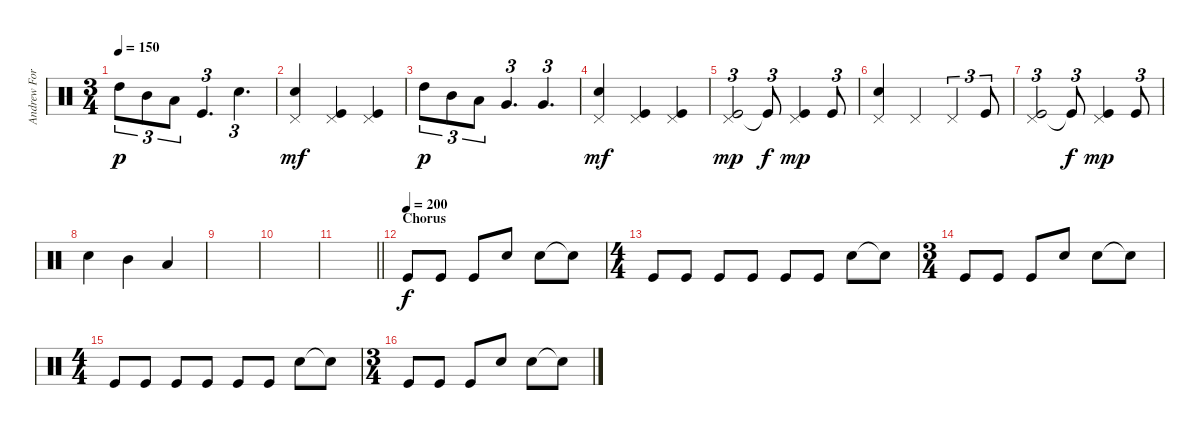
\track ("Andrew Forsman" "Andrew For") {instrument percussion}
\staff {score}
\articulation defaults
\ts (3 4)
\tempo 150
\clef neutral
\ks c "High Tom (hit)".8{tu (3 2) dy p} "Mid Tom (hit)".8{tu (3 2)} "Low Tom (hit)".8{tu (3 2)} "Kick (hit)".4{d tu (3 2)} "Electric Snare (hit)".4{d tu (3 2)}
|
("Pedal Hi-Hat (hit)" "Electric Snare (hit)").4{dy mf} ("Pedal Hi-Hat (hit)" "Kick (hit)").4 ("Pedal Hi-Hat (hit)" "Kick (hit)").4 |
"High Tom (hit)".8{tu (3 2) dy p} "Mid Tom (hit)".8{tu (3 2)} "Low Tom (hit)".8{tu (3 2)} "Very Low Tom (hit)".4{d tu (3 2)} "Very Low Tom (hit)".4{d tu (3 2)} |
("Pedal Hi-Hat (hit)" "Electric Snare (hit)").4{dy mf} ("Pedal Hi-Hat (hit)" "Kick (hit)").4 ("Pedal Hi-Hat (hit)" "Kick (hit)").4 |
("Pedal Hi-Hat (hit)" "Kick (hit)").2{tu (3 2) dy mp} "Kick (hit)"{t}.8{tu (3 2) dy f} ("Pedal Hi-Hat (hit)" "Kick (hit)").4{dy mp} "Kick (hit)".8{tu (3 2)} |
("Pedal Hi-Hat (hit)" "Electric Snare (hit)").4 "Pedal Hi-Hat (hit)".4 "Pedal Hi-Hat (hit)".4{tu (3 2)} "Kick (hit)".8{tu (3 2)} |
("Pedal Hi-Hat (hit)" "Kick (hit)").2{tu (3 2)} "Kick (hit)"{t}.8{tu (3 2) dy f} ("Pedal Hi-Hat (hit)" "Kick (hit)").4{dy mp} "Kick (hit)".8{tu (3 2)} |
"Electric Snare (hit)".4 "Mid Tom (hit)".4 "Low Tom (hit)".4 |
|
|
\barLineRight lightlight
|
\section ("" "Chorus")
\tempo (200)
"Kick (hit)".8{dy f} "Kick (hit)".8 "Kick (hit)".8 "Electric Snare (hit)".8 "Electric Snare (hit)".8 "Snare (hit)"{t}.8 |
\ts (4 4)
"Kick (hit)".8 "Kick (hit)".8 "Kick (hit)".8 "Kick (hit)".8 "Kick (hit)".8 "Kick (hit)".8 "Electric Snare (hit)".8 "Snare (hit)"{t}.8 |
\ts (3 4)
"Kick (hit)".8 "Kick (hit)".8 "Kick (hit)".8 "Electric Snare (hit)".8 "Electric Snare (hit)".8 "Snare (hit)"{t}.8 |
\ts (4 4)
"Kick (hit)".8 "Kick (hit)".8 "Kick (hit)".8 "Kick (hit)".8 "Kick (hit)".8 "Kick (hit)".8 "Electric Snare (hit)".8 "Snare (hit)"{t}.8 |
\ts (3 4)
"Kick (hit)".8 "Kick (hit)".8 "Kick (hit)".8 "Electric Snare (hit)".8 "Electric Snare (hit)".8 "Snare (hit)"{t}.8
